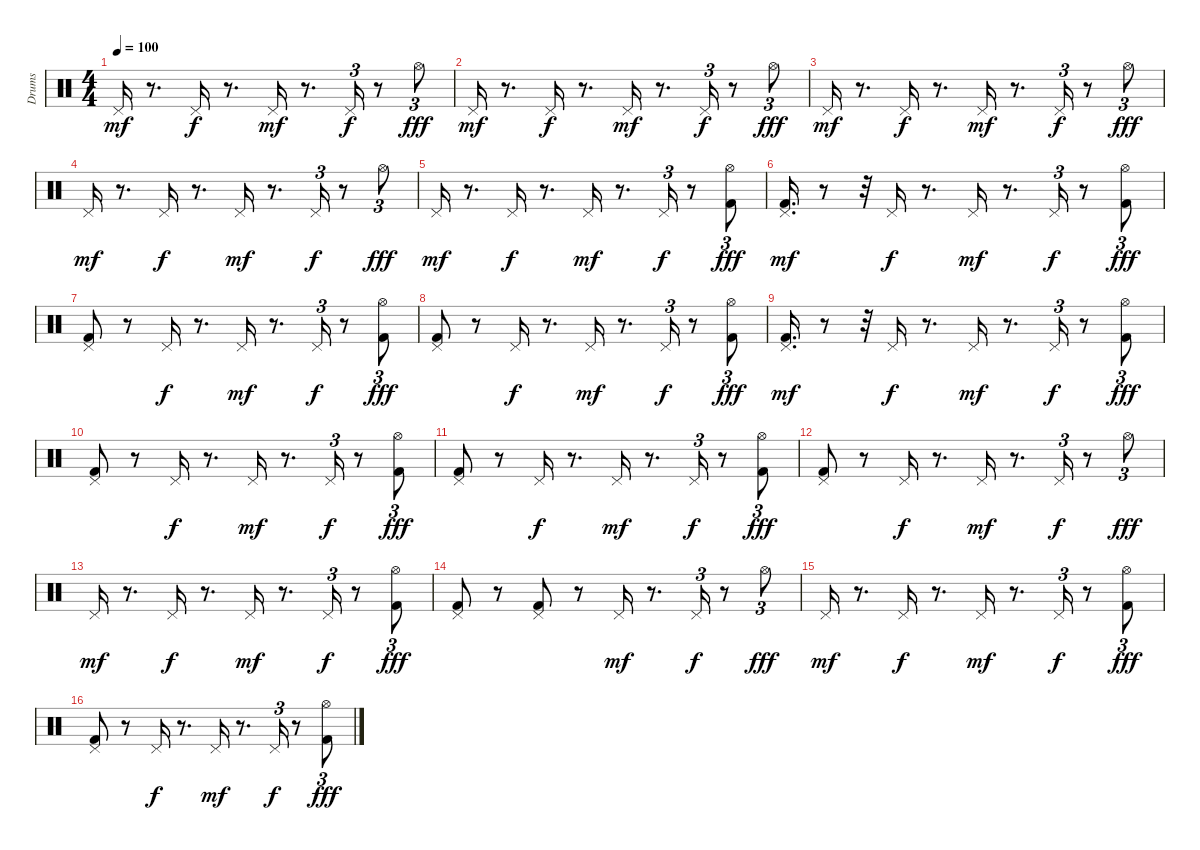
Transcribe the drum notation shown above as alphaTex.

\track ("Drums" "Drums") {instrument percussion}
\staff {score}
\articulation defaults
\ts (4 4)
\tempo 100
\clef neutral
\ks c "Pedal Hi-Hat (hit)".16{dy mf}
r.8{d} "Pedal Hi-Hat (hit)".16{dy f} r.8{d} "Pedal Hi-Hat (hit)".16{dy mf} r.8{d} "Pedal Hi-Hat (hit)".16{tu (3 2) dy f} r.8 "Hi-Hat (open)".8{tu (3 2) dy fff} |
"Pedal Hi-Hat (hit)".16{dy mf} r.8{d} "Pedal Hi-Hat (hit)".16{dy f} r.8{d} "Pedal Hi-Hat (hit)".16{dy mf} r.8{d} "Pedal Hi-Hat (hit)".16{tu (3 2) dy f} r.8 "Hi-Hat (open)".8{tu (3 2) dy fff} |
"Pedal Hi-Hat (hit)".16{dy mf} r.8{d} "Pedal Hi-Hat (hit)".16{dy f} r.8{d} "Pedal Hi-Hat (hit)".16{dy mf} r.8{d} "Pedal Hi-Hat (hit)".16{tu (3 2) dy f} r.8 "Hi-Hat (open)".8{tu (3 2) dy fff} |
"Pedal Hi-Hat (hit)".16{dy mf} r.8{d} "Pedal Hi-Hat (hit)".16{dy f} r.8{d} "Pedal Hi-Hat (hit)".16{dy mf} r.8{d} "Pedal Hi-Hat (hit)".16{tu (3 2) dy f} r.8 "Hi-Hat (open)".8{tu (3 2) dy fff} |
"Pedal Hi-Hat (hit)".16{dy mf} r.8{d} "Pedal Hi-Hat (hit)".16{dy f} r.8{d} "Pedal Hi-Hat (hit)".16{dy mf} r.8{d} "Pedal Hi-Hat (hit)".16{tu (3 2) dy f} r.8 ("Hi-Hat (open)" "Kick (hit) 2").8{tu (3 2) dy fff} |
("Kick (hit) 2" "Pedal Hi-Hat (hit)").16{d dy mf} r.8 r.32 "Pedal Hi-Hat (hit)".16{dy f} r.8{d} "Pedal Hi-Hat (hit)".16{dy mf} r.8{d} "Pedal Hi-Hat (hit)".16{tu (3 2) dy f} r.8 ("Hi-Hat (open)" "Kick (hit) 2").8{tu (3 2) dy fff} |
("Pedal Hi-Hat (hit)" "Kick (hit) 2").8 r.8 "Pedal Hi-Hat (hit)".16{dy f} r.8{d} "Pedal Hi-Hat (hit)".16{dy mf} r.8{d} "Pedal Hi-Hat (hit)".16{tu (3 2) dy f} r.8 ("Hi-Hat (open)" "Kick (hit) 2").8{tu (3 2) dy fff} |
("Pedal Hi-Hat (hit)" "Kick (hit) 2").8 r.8 "Pedal Hi-Hat (hit)".16{dy f} r.8{d} "Pedal Hi-Hat (hit)".16{dy mf} r.8{d} "Pedal Hi-Hat (hit)".16{tu (3 2) dy f} r.8 ("Hi-Hat (open)" "Kick (hit) 2").8{tu (3 2) dy fff} |
("Kick (hit) 2" "Pedal Hi-Hat (hit)").16{d dy mf} r.8 r.32 "Pedal Hi-Hat (hit)".16{dy f} r.8{d} "Pedal Hi-Hat (hit)".16{dy mf} r.8{d} "Pedal Hi-Hat (hit)".16{tu (3 2) dy f} r.8 ("Hi-Hat (open)" "Kick (hit) 2").8{tu (3 2) dy fff} |
("Pedal Hi-Hat (hit)" "Kick (hit) 2").8 r.8 "Pedal Hi-Hat (hit)".16{dy f} r.8{d} "Pedal Hi-Hat (hit)".16{dy mf} r.8{d} "Pedal Hi-Hat (hit)".16{tu (3 2) dy f} r.8 ("Hi-Hat (open)" "Kick (hit) 2").8{tu (3 2) dy fff} |
("Pedal Hi-Hat (hit)" "Kick (hit) 2").8 r.8 "Pedal Hi-Hat (hit)".16{dy f} r.8{d} "Pedal Hi-Hat (hit)".16{dy mf} r.8{d} "Pedal Hi-Hat (hit)".16{tu (3 2) dy f} r.8 ("Hi-Hat (open)" "Kick (hit) 2").8{tu (3 2) dy fff} |
("Pedal Hi-Hat (hit)" "Kick (hit) 2").8 r.8 "Pedal Hi-Hat (hit)".16{dy f} r.8{d} "Pedal Hi-Hat (hit)".16{dy mf} r.8{d} "Pedal Hi-Hat (hit)".16{tu (3 2) dy f} r.8 "Hi-Hat (open)".8{tu (3 2) dy fff} |
"Pedal Hi-Hat (hit)".16{dy mf} r.8{d} "Pedal Hi-Hat (hit)".16{dy f} r.8{d} "Pedal Hi-Hat (hit)".16{dy mf} r.8{d} "Pedal Hi-Hat (hit)".16{tu (3 2) dy f} r.8 ("Hi-Hat (open)" "Kick (hit) 2").8{tu (3 2) dy fff} |
("Pedal Hi-Hat (hit)" "Kick (hit) 2").8 r.8 ("Pedal Hi-Hat (hit)" "Kick (hit) 2").8 r.8 "Pedal Hi-Hat (hit)".16{dy mf} r.8{d} "Pedal Hi-Hat (hit)".16{tu (3 2) dy f} r.8 "Hi-Hat (open)".8{tu (3 2) dy fff} |
"Pedal Hi-Hat (hit)".16{dy mf} r.8{d} "Pedal Hi-Hat (hit)".16{dy f} r.8{d} "Pedal Hi-Hat (hit)".16{dy mf} r.8{d} "Pedal Hi-Hat (hit)".16{tu (3 2) dy f} r.8 ("Hi-Hat (open)" "Kick (hit) 2").8{tu (3 2) dy fff} |
("Pedal Hi-Hat (hit)" "Kick (hit) 2").8 r.8 "Pedal Hi-Hat (hit)".16{dy f} r.8{d} "Pedal Hi-Hat (hit)".16{dy mf} r.8{d} "Pedal Hi-Hat (hit)".16{tu (3 2) dy f} r.8 ("Hi-Hat (open)" "Kick (hit) 2").8{tu (3 2) dy fff}
